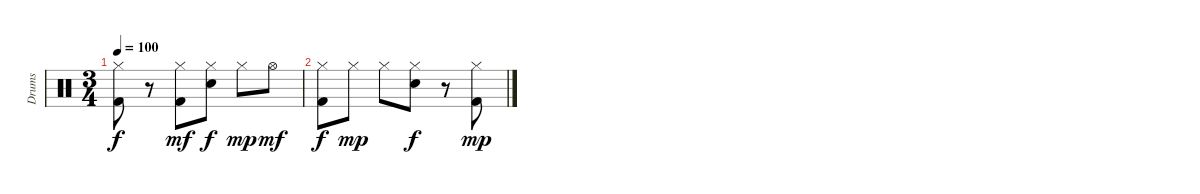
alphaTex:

\track ("Drums" "Drums") {instrument percussion}
\staff {score}
\articulation defaults
\ts (3 4)
\tempo 100
\clef neutral
\ks c
("Hi-Hat (closed)" "Kick (hit) 2").8{dy f} r.8 ("Hi-Hat (closed)" "Kick (hit) 2").8{dy mf} ("Hi-Hat (closed)" "Electric Snare (hit)").8{dy f} "Hi-Hat (closed)".8{dy mp} "Hi-Hat (open)".8{dy mf} |
("Hi-Hat (closed)" "Kick (hit) 2").8{dy f} "Hi-Hat (closed)".8{dy mp} "Hi-Hat (closed)".8 ("Hi-Hat (closed)" "Electric Snare (hit)").8{dy f} r.8 ("Hi-Hat (closed)" "Kick (hit) 2").8{dy mp}
